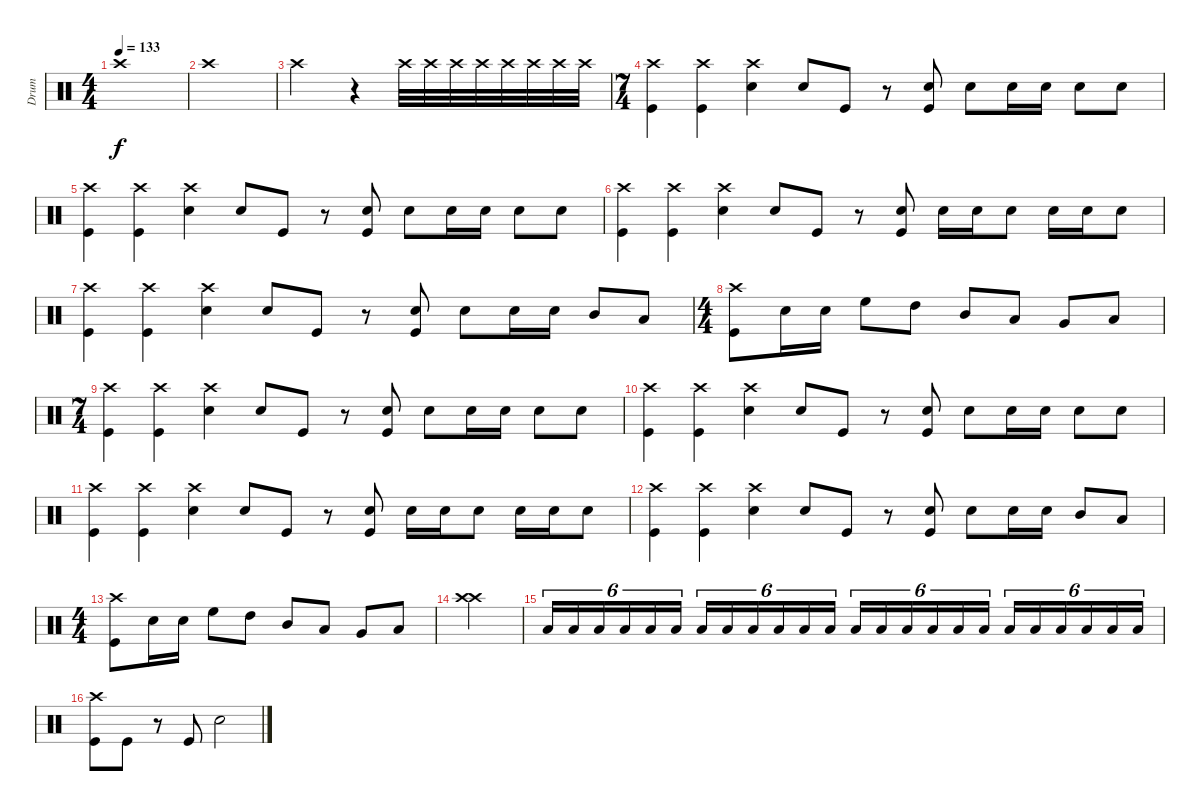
\track ("Drum" "Drum") {instrument percussion}
\staff {score}
\articulation defaults
\ts (4 4)
\tempo 133
\clef neutral
\ks c "Crash high (hit)".1{dy f}
|
"Crash high (hit)".1 |
"Crash high (hit)".2 r.4 "Crash high (hit)".32 "Crash high (hit)".32 "Crash high (hit)".32 "Crash high (hit)".32 "Crash high (hit)".32 "Crash high (hit)".32 "Crash high (hit)".32 "Crash high (hit)".32 |
\ts (7 4)
("Crash high (hit)" "Kick (hit)").4 ("Crash high (hit)" "Kick (hit)").4 ("Crash high (hit)" "Snare (hit) 2").4 "Snare (hit) 2".8 "Kick (hit)".8 r.8 ("Snare (hit) 2" "Kick (hit)").8 "Snare (hit) 2".8 "Snare (hit) 2".16 "Snare (hit) 2".16 "Snare (hit) 2".8 "Snare (hit) 2".8 |
("Crash high (hit)" "Kick (hit)").4 ("Crash high (hit)" "Kick (hit)").4 ("Crash high (hit)" "Snare (hit) 2").4 "Snare (hit) 2".8 "Kick (hit)".8 r.8 ("Snare (hit) 2" "Kick (hit)").8 "Snare (hit) 2".8 "Snare (hit) 2".16 "Snare (hit) 2".16 "Snare (hit) 2".8 "Snare (hit) 2".8 |
("Crash high (hit)" "Kick (hit)").4 ("Crash high (hit)" "Kick (hit)").4 ("Crash high (hit)" "Snare (hit) 2").4 "Snare (hit) 2".8 "Kick (hit)".8 r.8 ("Snare (hit) 2" "Kick (hit)").8 "Snare (hit) 2".16 "Snare (hit) 2".16 "Snare (hit) 2".8 "Snare (hit) 2".16 "Snare (hit) 2".16 "Snare (hit) 2".8 |
("Crash high (hit)" "Kick (hit)").4 ("Crash high (hit)" "Kick (hit)").4 ("Crash high (hit)" "Snare (hit) 2").4 "Snare (hit) 2".8 "Kick (hit)".8 r.8 ("Snare (hit) 2" "Kick (hit)").8 "Snare (hit) 2".8 "Snare (hit) 2".16 "Snare (hit) 2".16 "Mid Tom (hit)".8 "Low Tom (hit)".8 |
\ts (4 4)
("Crash high (hit)" "Kick (hit)").8 "Snare (hit) 2".16 "Snare (hit) 2".16 "High Floor Tom (hit)".8 "High Tom (hit)".8 "Mid Tom (hit)".8 "Low Tom (hit)".8 "Very Low Tom (hit)".8 "Low Floor Tom (hit)".8 |
\ts (7 4)
("Crash high (hit)" "Kick (hit)").4 ("Crash high (hit)" "Kick (hit)").4 ("Crash high (hit)" "Snare (hit) 2").4 "Snare (hit) 2".8 "Kick (hit)".8 r.8 ("Snare (hit) 2" "Kick (hit)").8 "Snare (hit) 2".8 "Snare (hit) 2".16 "Snare (hit) 2".16 "Snare (hit) 2".8 "Snare (hit) 2".8 |
("Crash high (hit)" "Kick (hit)").4 ("Crash high (hit)" "Kick (hit)").4 ("Crash high (hit)" "Snare (hit) 2").4 "Snare (hit) 2".8 "Kick (hit)".8 r.8 ("Snare (hit) 2" "Kick (hit)").8 "Snare (hit) 2".8 "Snare (hit) 2".16 "Snare (hit) 2".16 "Snare (hit) 2".8 "Snare (hit) 2".8 |
("Crash high (hit)" "Kick (hit)").4 ("Crash high (hit)" "Kick (hit)").4 ("Crash high (hit)" "Snare (hit) 2").4 "Snare (hit) 2".8 "Kick (hit)".8 r.8 ("Snare (hit) 2" "Kick (hit)").8 "Snare (hit) 2".16 "Snare (hit) 2".16 "Snare (hit) 2".8 "Snare (hit) 2".16 "Snare (hit) 2".16 "Snare (hit) 2".8 |
("Crash high (hit)" "Kick (hit)").4 ("Crash high (hit)" "Kick (hit)").4 ("Crash high (hit)" "Snare (hit) 2").4 "Snare (hit) 2".8 "Kick (hit)".8 r.8 ("Snare (hit) 2" "Kick (hit)").8 "Snare (hit) 2".8 "Snare (hit) 2".16 "Snare (hit) 2".16 "Mid Tom (hit)".8 "Low Tom (hit)".8 |
\ts (4 4)
("Crash high (hit)" "Kick (hit)").8 "Snare (hit) 2".16 "Snare (hit) 2".16 "High Floor Tom (hit)".8 "High Tom (hit)".8 "Mid Tom (hit)".8 "Low Tom (hit)".8 "Very Low Tom (hit)".8 "Low Floor Tom (hit)".8 |
("Crash high (hit)" "Crash high (hit)").4 |
"Low Tom (hit)".16{tu (6 4)} "Low Tom (hit)".16{tu (6 4)} "Low Tom (hit)".16{tu (6 4)} "Low Tom (hit)".16{tu (6 4)} "Low Tom (hit)".16{tu (6 4)} "Low Tom (hit)".16{tu (6 4)} "Low Tom (hit)".16{tu (6 4)} "Low Tom (hit)".16{tu (6 4)} "Low Tom (hit)".16{tu (6 4)} "Low Tom (hit)".16{tu (6 4)} "Low Tom (hit)".16{tu (6 4)} "Low Tom (hit)".16{tu (6 4)} "Low Tom (hit)".16{tu (6 4)} "Low Tom (hit)".16{tu (6 4)} "Low Tom (hit)".16{tu (6 4)} "Low Tom (hit)".16{tu (6 4)} "Low Tom (hit)".16{tu (6 4)} "Low Tom (hit)".16{tu (6 4)} "Low Tom (hit)".16{tu (6 4)} "Low Tom (hit)".16{tu (6 4)} "Low Tom (hit)".16{tu (6 4)} "Low Tom (hit)".16{tu (6 4)} "Low Tom (hit)".16{tu (6 4)} "Low Tom (hit)".16{tu (6 4)} |
("Crash high (hit)" "Kick (hit)").8 "Kick (hit)".8 r.8 "Kick (hit)".8 "Snare (hit) 2".2
